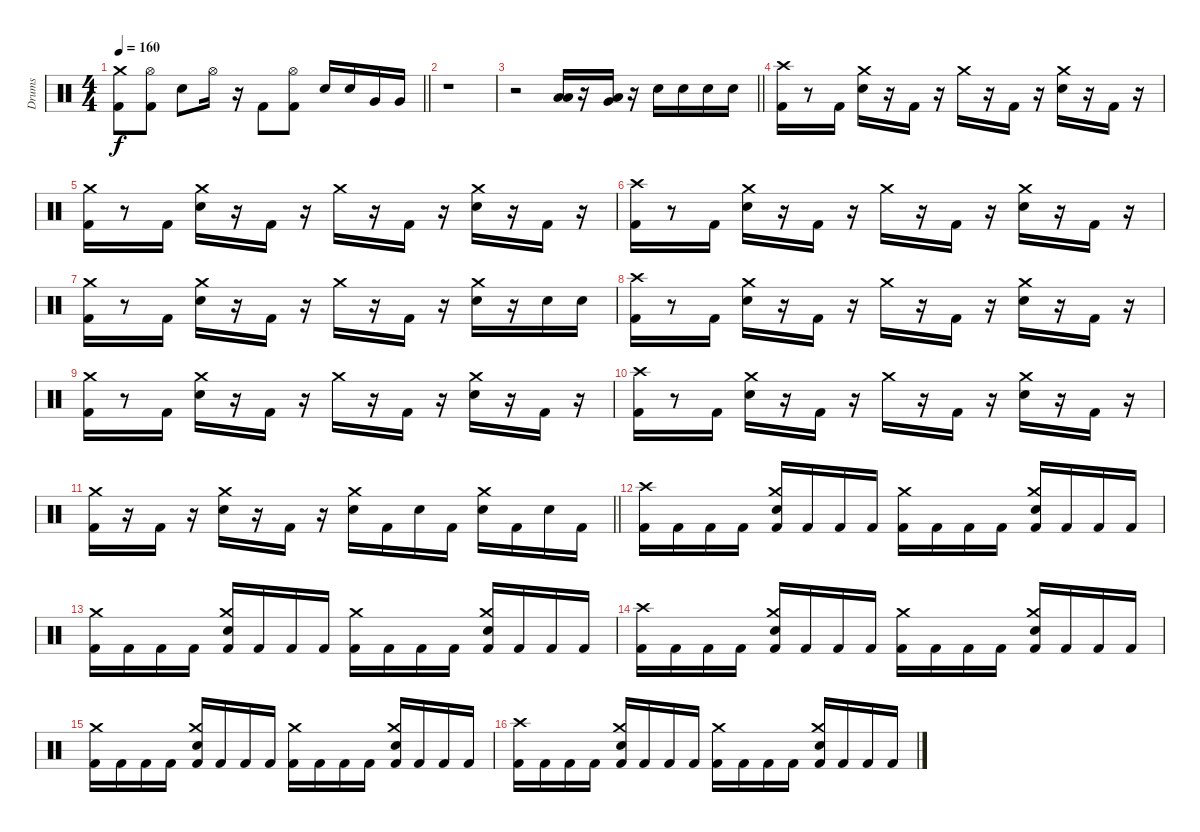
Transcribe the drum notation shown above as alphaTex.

\track ("Drums" "Drums") {instrument percussion}
\staff {score}
\articulation defaults
\ts (4 4)
\tempo 160
\clef neutral
\barLineRight lightlight
\ks c
("Kick (hit) 2" "Crash medium (hit)").8{dy f} ("Kick (hit) 2" "Hi-Hat (open)").8 "Snare (hit) 2".8 "Hi-Hat (open)".16 r.16 "Kick (hit) 2".8 ("Kick (hit) 2" "Hi-Hat (open)").8 "Snare (hit) 2".16 "Snare (hit) 2".16 "Very Low Tom (hit)".16 "Very Low Tom (hit)".16 |
\section ("" " ")
r.1 |
\barLineRight lightlight
r.2 ("Low Floor Tom (hit)" "Low Tom (hit)").16 r.16 ("Low Floor Tom (hit)" "Very Low Tom (hit)").16 r.16 "Snare (hit) 2".16 "Snare (hit) 2".16 "Snare (hit) 2".16 "Snare (hit) 2".16 |
\section ("" " ")
("Kick (hit) 2" "Crash high (hit)").16 r.8 "Kick (hit) 2".16 ("Snare (hit) 2" "Crash medium (hit)").16 r.16 "Kick (hit) 2".16 r.16 "Crash medium (hit)".16 r.16 "Kick (hit) 2".16 r.16 ("Snare (hit) 2" "Crash medium (hit)").16 r.16 "Kick (hit) 2".16 r.16 |
("Kick (hit) 2" "Crash medium (hit)").16 r.8 "Kick (hit) 2".16 ("Snare (hit) 2" "Crash medium (hit)").16 r.16 "Kick (hit) 2".16 r.16 "Crash medium (hit)".16 r.16 "Kick (hit) 2".16 r.16 ("Snare (hit) 2" "Crash medium (hit)").16 r.16 "Kick (hit) 2".16 r.16 |
("Kick (hit) 2" "Crash high (hit)").16 r.8 "Kick (hit) 2".16 ("Snare (hit) 2" "Crash medium (hit)").16 r.16 "Kick (hit) 2".16 r.16 "Crash medium (hit)".16 r.16 "Kick (hit) 2".16 r.16 ("Snare (hit) 2" "Crash medium (hit)").16 r.16 "Kick (hit) 2".16 r.16 |
("Kick (hit) 2" "Crash medium (hit)").16 r.8 "Kick (hit) 2".16 ("Snare (hit) 2" "Crash medium (hit)").16 r.16 "Kick (hit) 2".16 r.16 "Crash medium (hit)".16 r.16 "Kick (hit) 2".16 r.16 ("Snare (hit) 2" "Crash medium (hit)").16 r.16 "Snare (hit) 2".16 "Snare (hit) 2".16 |
("Kick (hit) 2" "Crash high (hit)").16 r.8 "Kick (hit) 2".16 ("Snare (hit) 2" "Crash medium (hit)").16 r.16 "Kick (hit) 2".16 r.16 "Crash medium (hit)".16 r.16 "Kick (hit) 2".16 r.16 ("Snare (hit) 2" "Crash medium (hit)").16 r.16 "Kick (hit) 2".16 r.16 |
("Kick (hit) 2" "Crash medium (hit)").16 r.8 "Kick (hit) 2".16 ("Snare (hit) 2" "Crash medium (hit)").16 r.16 "Kick (hit) 2".16 r.16 "Crash medium (hit)".16 r.16 "Kick (hit) 2".16 r.16 ("Snare (hit) 2" "Crash medium (hit)").16 r.16 "Kick (hit) 2".16 r.16 |
("Kick (hit) 2" "Crash high (hit)").16 r.8 "Kick (hit) 2".16 ("Snare (hit) 2" "Crash medium (hit)").16 r.16 "Kick (hit) 2".16 r.16 "Crash medium (hit)".16 r.16 "Kick (hit) 2".16 r.16 ("Snare (hit) 2" "Crash medium (hit)").16 r.16 "Kick (hit) 2".16 r.16 |
\barLineRight lightlight
("Kick (hit) 2" "Crash medium (hit)").16 r.16 "Kick (hit) 2".16 r.16 ("Snare (hit) 2" "Crash medium (hit)").16 r.16 "Kick (hit) 2".16 r.16 ("Snare (hit) 2" "Crash medium (hit)").16 "Kick (hit) 2".16 "Snare (hit) 2".16 "Kick (hit) 2".16 ("Snare (hit) 2" "Crash medium (hit)").16 "Kick (hit) 2".16 "Snare (hit) 2".16 "Kick (hit) 2".16 |
("Kick (hit) 2" "Crash high (hit)").16 "Kick (hit) 2".16 "Kick (hit) 2".16 "Kick (hit) 2".16 ("Kick (hit) 2" "Snare (hit) 2" "Crash medium (hit)").16 "Kick (hit) 2".16 "Kick (hit) 2".16 "Kick (hit) 2".16 ("Kick (hit) 2" "Crash medium (hit)").16 "Kick (hit) 2".16 "Kick (hit) 2".16 "Kick (hit) 2".16 ("Kick (hit) 2" "Snare (hit) 2" "Crash medium (hit)").16 "Kick (hit) 2".16 "Kick (hit) 2".16 "Kick (hit) 2".16 |
("Kick (hit) 2" "Crash medium (hit)").16 "Kick (hit) 2".16 "Kick (hit) 2".16 "Kick (hit) 2".16 ("Kick (hit) 2" "Snare (hit) 2" "Crash medium (hit)").16 "Kick (hit) 2".16 "Kick (hit) 2".16 "Kick (hit) 2".16 ("Kick (hit) 2" "Crash medium (hit)").16 "Kick (hit) 2".16 "Kick (hit) 2".16 "Kick (hit) 2".16 ("Kick (hit) 2" "Snare (hit) 2" "Crash medium (hit)").16 "Kick (hit) 2".16 "Kick (hit) 2".16 "Kick (hit) 2".16 |
("Kick (hit) 2" "Crash high (hit)").16 "Kick (hit) 2".16 "Kick (hit) 2".16 "Kick (hit) 2".16 ("Kick (hit) 2" "Snare (hit) 2" "Crash medium (hit)").16 "Kick (hit) 2".16 "Kick (hit) 2".16 "Kick (hit) 2".16 ("Kick (hit) 2" "Crash medium (hit)").16 "Kick (hit) 2".16 "Kick (hit) 2".16 "Kick (hit) 2".16 ("Kick (hit) 2" "Snare (hit) 2" "Crash medium (hit)").16 "Kick (hit) 2".16 "Kick (hit) 2".16 "Kick (hit) 2".16 |
("Kick (hit) 2" "Crash medium (hit)").16 "Kick (hit) 2".16 "Kick (hit) 2".16 "Kick (hit) 2".16 ("Kick (hit) 2" "Snare (hit) 2" "Crash medium (hit)").16 "Kick (hit) 2".16 "Kick (hit) 2".16 "Kick (hit) 2".16 ("Kick (hit) 2" "Crash medium (hit)").16 "Kick (hit) 2".16 "Kick (hit) 2".16 "Kick (hit) 2".16 ("Kick (hit) 2" "Snare (hit) 2" "Crash medium (hit)").16 "Kick (hit) 2".16 "Kick (hit) 2".16 "Kick (hit) 2".16 |
("Kick (hit) 2" "Crash high (hit)").16 "Kick (hit) 2".16 "Kick (hit) 2".16 "Kick (hit) 2".16 ("Kick (hit) 2" "Snare (hit) 2" "Crash medium (hit)").16 "Kick (hit) 2".16 "Kick (hit) 2".16 "Kick (hit) 2".16 ("Kick (hit) 2" "Crash medium (hit)").16 "Kick (hit) 2".16 "Kick (hit) 2".16 "Kick (hit) 2".16 ("Kick (hit) 2" "Snare (hit) 2" "Crash medium (hit)").16 "Kick (hit) 2".16 "Kick (hit) 2".16 "Kick (hit) 2".16
